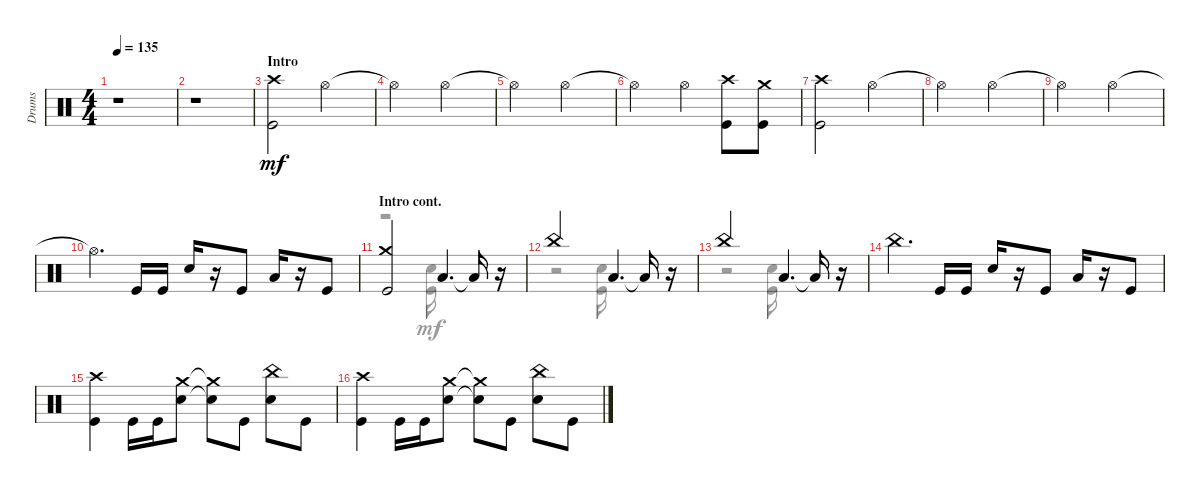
\track ("Drums" "Drums") {instrument percussion}
\staff {score}
\articulation defaults
\voice
\ts (4 4)
\tempo 135
\clef neutral
\ks aminor
r.1{dy mf} |
r.1 |
\section ("" "Intro")
("Kick (hit)" "Crash high (hit)").2 "Hi-Hat (open)".2 |
"Hi-Hat (open)"{t}.2 "Hi-Hat (open)".2 |
"Hi-Hat (open)"{t}.2 "Hi-Hat (open)".2 |
"Hi-Hat (open)"{t}.2 "Hi-Hat (open)".4 ("Kick (hit)" "Crash high (hit)").8 ("Kick (hit)" "Crash medium (hit)").8 |
("Kick (hit)" "Crash high (hit)").2 "Hi-Hat (open)".2 |
"Hi-Hat (open)"{t}.2 "Hi-Hat (open)".2 |
"Hi-Hat (open)"{t}.2 "Hi-Hat (open)".2 |
"Hi-Hat (open)"{t}.4{d} "Kick (hit)".16 "Kick (hit)".16 "Snare (hit) 2".16 r.16 "Kick (hit)".8 "Low Floor Tom (hit)".16 r.16 "Kick (hit)".8 |
\section ("" "Intro cont.")
("Kick (hit)" "Crash medium (hit)").2 "Low Floor Tom (hit)".4{d} "Low Floor Tom (hit)"{t}.16 r.16 |
"China (hit)".2 "Low Floor Tom (hit)".4{d} "Low Floor Tom (hit)"{t}.16 r.16 |
"China (hit)".2 "Low Floor Tom (hit)".4{d} "Low Floor Tom (hit)"{t}.16 r.16 |
"China (hit)".4{d} "Kick (hit)".16 "Kick (hit)".16 "Snare (hit) 2".16 r.16 "Kick (hit)".8 "Low Floor Tom (hit)".16 r.16 "Kick (hit)".8 |
("Crash high (hit)" "Kick (hit)").4 "Kick (hit)".16 "Kick (hit)".16 ("Crash medium (hit)" "Snare (hit) 2").8 ("Crash medium (hit)"{t} "Snare (hit) 2"{t}).8 "Kick (hit)".8 ("Snare (hit) 2" "China (hit)").8 "Kick (hit)".8 |
("Crash high (hit)" "Kick (hit)").4 "Kick (hit)".16 "Kick (hit)".16 ("Crash medium (hit)" "Snare (hit) 2").8 ("Crash medium (hit)"{t} "Snare (hit) 2"{t}).8 "Kick (hit)".8 ("China (hit)" "Snare (hit) 2").8 "Kick (hit)".8
\voice
\clef neutral
\ottava regular
\simile none
\ks aminor
|
|
|
|
|
|
|
|
|
|
r.2 ("Kick (hit)" "Hand Clap (hit)").16 |
r.2 ("Hand Clap (hit)" "Kick (hit)").16 |
r.2 ("Kick (hit)" "Hand Clap (hit)").16 |
|
|
